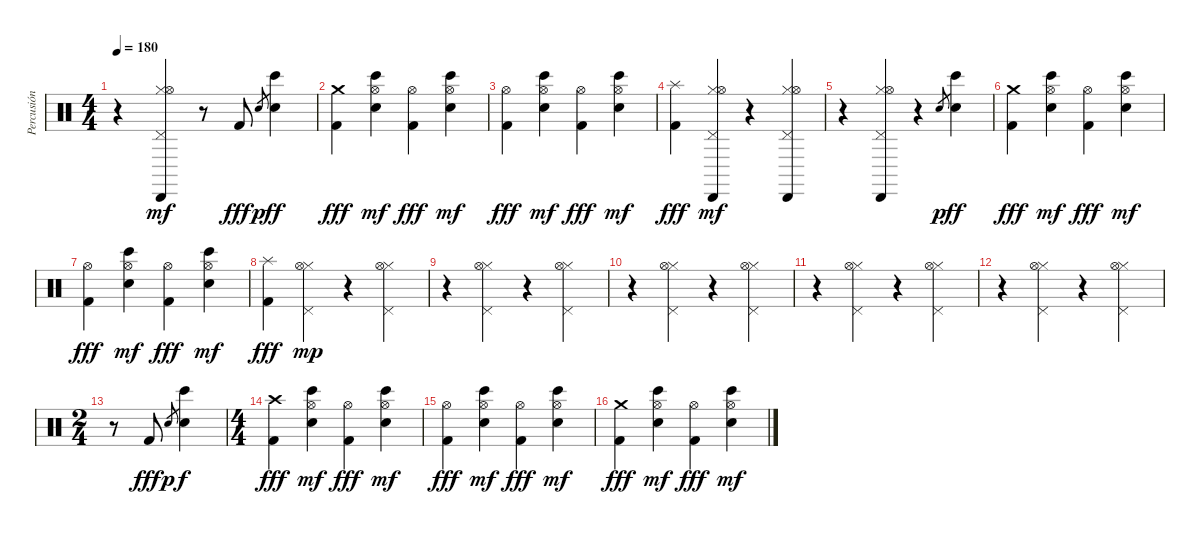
\track ("Percusión" "Percusión") {instrument percussion}
\staff {score}
\articulation defaults
\ts (4 4)
\tempo 180
\clef neutral
\ks c
r.4{dy mf} ("Hi-Hat (closed)" "Pedal Hi-Hat (hit)" "Hi-Hat (open)" "Cabasa (hit)").4 r.8 "Kick (hit) 2".8{dy fff} "Snare (hit) 2".8{gr dy p} ("Bongo High (hit)" "Snare (hit) 2").4{dy ff} |
("Crash medium (hit)" "Kick (hit) 2").4{dy fff} ("Hi-Hat (open)" "Bongo High (hit)" "Snare (hit) 2").4{dy mf} ("Hi-Hat (open)" "Kick (hit) 2").4{dy fff} ("Hi-Hat (open)" "Bongo High (hit)" "Snare (hit) 2").4{dy mf} |
("Hi-Hat (open)" "Kick (hit) 2").4{dy fff} ("Hi-Hat (open)" "Bongo High (hit)" "Snare (hit) 2").4{dy mf} ("Hi-Hat (open)" "Kick (hit) 2").4{dy fff} ("Hi-Hat (open)" "Bongo High (hit)" "Snare (hit) 2").4{dy mf} |
("Splash (hit)" "Kick (hit) 2").4{dy fff} ("Hi-Hat (closed)" "Pedal Hi-Hat (hit)" "Hi-Hat (open)" "Cabasa (hit)").4{dy mf} r.4 ("Hi-Hat (closed)" "Pedal Hi-Hat (hit)" "Hi-Hat (open)" "Cabasa (hit)").4 |
r.4 ("Hi-Hat (closed)" "Pedal Hi-Hat (hit)" "Hi-Hat (open)" "Cabasa (hit)").4 r.4 "Snare (hit) 2".8{gr dy p} ("Bongo High (hit)" "Snare (hit) 2").4{dy ff} |
("Crash medium (hit)" "Kick (hit) 2").4{dy fff} ("Hi-Hat (open)" "Bongo High (hit)" "Snare (hit) 2").4{dy mf} ("Hi-Hat (open)" "Kick (hit) 2").4{dy fff} ("Hi-Hat (open)" "Bongo High (hit)" "Snare (hit) 2").4{dy mf} |
("Hi-Hat (open)" "Kick (hit) 2").4{dy fff} ("Hi-Hat (open)" "Bongo High (hit)" "Snare (hit) 2").4{dy mf} ("Hi-Hat (open)" "Kick (hit) 2").4{dy fff} ("Hi-Hat (open)" "Bongo High (hit)" "Snare (hit) 2").4{dy mf} |
("Splash (hit)" "Kick (hit) 2").4{dy fff} ("Hi-Hat (closed)" "Pedal Hi-Hat (hit)" "Hi-Hat (open)").4{dy mp} r.4 ("Hi-Hat (closed)" "Pedal Hi-Hat (hit)" "Hi-Hat (open)").4 |
r.4 ("Hi-Hat (closed)" "Pedal Hi-Hat (hit)" "Hi-Hat (open)").4 r.4 ("Hi-Hat (closed)" "Pedal Hi-Hat (hit)" "Hi-Hat (open)").4 |
r.4 ("Hi-Hat (closed)" "Pedal Hi-Hat (hit)" "Hi-Hat (open)").4 r.4 ("Hi-Hat (closed)" "Pedal Hi-Hat (hit)" "Hi-Hat (open)").4 |
r.4 ("Hi-Hat (closed)" "Pedal Hi-Hat (hit)" "Hi-Hat (open)").4 r.4 ("Hi-Hat (closed)" "Pedal Hi-Hat (hit)" "Hi-Hat (open)").4 |
r.4 ("Hi-Hat (closed)" "Pedal Hi-Hat (hit)" "Hi-Hat (open)").4 r.4 ("Hi-Hat (closed)" "Pedal Hi-Hat (hit)" "Hi-Hat (open)").4 |
\ts (2 4)
r.8 "Kick (hit) 2".8{dy fff} "Snare (hit) 2".8{gr dy p} ("Bongo High (hit)" "Snare (hit) 2").4{dy f} |
\ts (4 4)
("Crash high (hit)" "Kick (hit) 2").4{dy fff} ("Hi-Hat (open)" "Bongo High (hit)" "Snare (hit) 2").4{dy mf} ("Hi-Hat (open)" "Kick (hit) 2").4{dy fff} ("Hi-Hat (open)" "Bongo High (hit)" "Snare (hit) 2").4{dy mf} |
("Hi-Hat (open)" "Kick (hit) 2").4{dy fff} ("Hi-Hat (open)" "Bongo High (hit)" "Snare (hit) 2").4{dy mf} ("Hi-Hat (open)" "Kick (hit) 2").4{dy fff} ("Hi-Hat (open)" "Bongo High (hit)" "Snare (hit) 2").4{dy mf} |
("Crash medium (hit)" "Kick (hit) 2").4{dy fff} ("Hi-Hat (open)" "Bongo High (hit)" "Snare (hit) 2").4{dy mf} ("Hi-Hat (open)" "Kick (hit) 2").4{dy fff} ("Hi-Hat (open)" "Bongo High (hit)" "Snare (hit) 2").4{dy mf}
